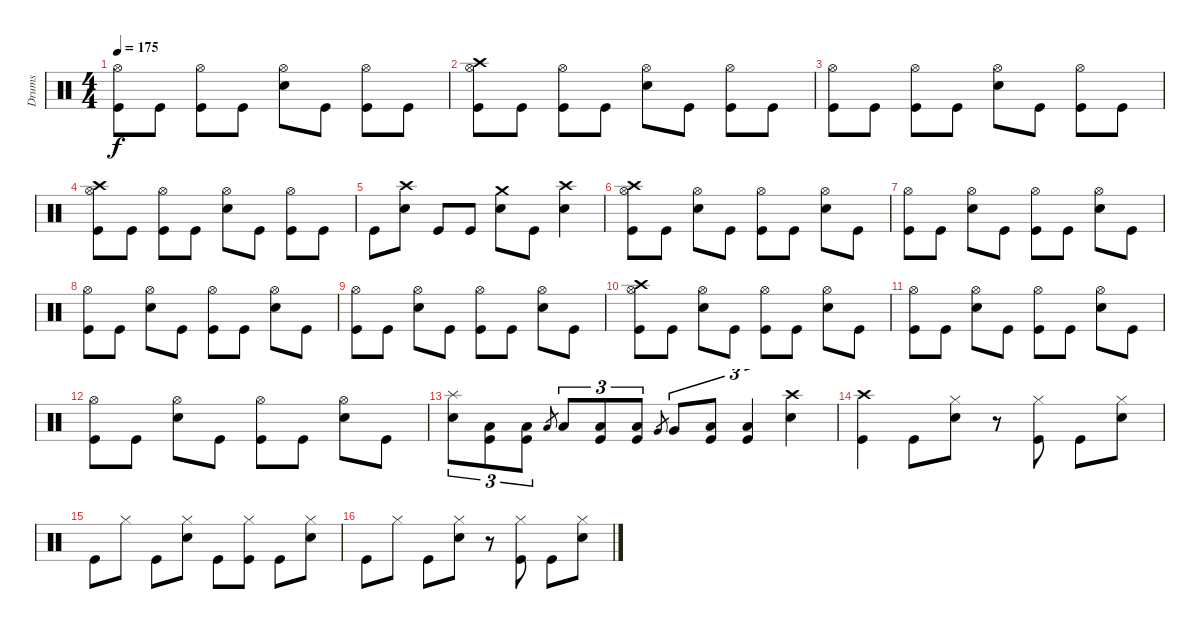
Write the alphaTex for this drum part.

\track ("Drums" "Drums") {instrument percussion}
\staff {score}
\articulation defaults
\ts (4 4)
\tempo 175
\clef neutral
\ks c
("Hi-Hat (open)" "Kick (hit)").8{dy f} "Kick (hit)".8 ("Hi-Hat (open)" "Kick (hit)").8 "Kick (hit)".8 ("Hi-Hat (open)" "Electric Snare (hit)").8 "Kick (hit)".8 ("Hi-Hat (open)" "Kick (hit)").8 "Kick (hit)".8 |
("Crash high (hit)" "Hi-Hat (open)" "Kick (hit)").8 "Kick (hit)".8 ("Hi-Hat (open)" "Kick (hit)").8 "Kick (hit)".8 ("Hi-Hat (open)" "Electric Snare (hit)").8 "Kick (hit)".8 ("Hi-Hat (open)" "Kick (hit)").8 "Kick (hit)".8 |
("Hi-Hat (open)" "Kick (hit)").8 "Kick (hit)".8 ("Hi-Hat (open)" "Kick (hit)").8 "Kick (hit)".8 ("Hi-Hat (open)" "Electric Snare (hit)").8 "Kick (hit)".8 ("Hi-Hat (open)" "Kick (hit)").8 "Kick (hit)".8 |
("Crash high (hit)" "Hi-Hat (open)" "Kick (hit)").8 "Kick (hit)".8 ("Hi-Hat (open)" "Kick (hit)").8 "Kick (hit)".8 ("Hi-Hat (open)" "Electric Snare (hit)").8 "Kick (hit)".8 ("Hi-Hat (open)" "Kick (hit)").8 "Kick (hit)".8 |
"Kick (hit)".8 ("Crash high (hit)" "Electric Snare (hit)").8 "Kick (hit)".8 "Kick (hit)".8 ("Crash medium (hit)" "Electric Snare (hit)").8 "Kick (hit)".8 ("Crash high (hit)" "Electric Snare (hit)").4 |
("Crash high (hit)" "Hi-Hat (open)" "Kick (hit)").8 "Kick (hit)".8 ("Hi-Hat (open)" "Electric Snare (hit)").8 "Kick (hit)".8 ("Hi-Hat (open)" "Kick (hit)").8 "Kick (hit)".8 ("Hi-Hat (open)" "Electric Snare (hit)").8 "Kick (hit)".8 |
("Hi-Hat (open)" "Kick (hit)").8 "Kick (hit)".8 ("Hi-Hat (open)" "Electric Snare (hit)").8 "Kick (hit)".8 ("Hi-Hat (open)" "Kick (hit)").8 "Kick (hit)".8 ("Hi-Hat (open)" "Electric Snare (hit)").8 "Kick (hit)".8 |
("Hi-Hat (open)" "Kick (hit)").8 "Kick (hit)".8 ("Hi-Hat (open)" "Electric Snare (hit)").8 "Kick (hit)".8 ("Hi-Hat (open)" "Kick (hit)").8 "Kick (hit)".8 ("Hi-Hat (open)" "Electric Snare (hit)").8 "Kick (hit)".8 |
("Hi-Hat (open)" "Kick (hit)").8 "Kick (hit)".8 ("Hi-Hat (open)" "Electric Snare (hit)").8 "Kick (hit)".8 ("Hi-Hat (open)" "Kick (hit)").8 "Kick (hit)".8 ("Hi-Hat (open)" "Electric Snare (hit)").8 "Kick (hit)".8 |
("Crash high (hit)" "Hi-Hat (open)" "Kick (hit)").8 "Kick (hit)".8 ("Hi-Hat (open)" "Electric Snare (hit)").8 "Kick (hit)".8 ("Hi-Hat (open)" "Kick (hit)").8 "Kick (hit)".8 ("Hi-Hat (open)" "Electric Snare (hit)").8 "Kick (hit)".8 |
("Hi-Hat (open)" "Kick (hit)").8 "Kick (hit)".8 ("Hi-Hat (open)" "Electric Snare (hit)").8 "Kick (hit)".8 ("Hi-Hat (open)" "Kick (hit)").8 "Kick (hit)".8 ("Hi-Hat (open)" "Electric Snare (hit)").8 "Kick (hit)".8 |
("Hi-Hat (open)" "Kick (hit)").8 "Kick (hit)".8 ("Hi-Hat (open)" "Electric Snare (hit)").8 "Kick (hit)".8 ("Hi-Hat (open)" "Kick (hit)").8 "Kick (hit)".8 ("Hi-Hat (open)" "Electric Snare (hit)").8 "Kick (hit)".8 |
("Splash (hit)" "Electric Snare (hit)").8{tu (3 2)} ("Low Floor Tom (hit)" "Kick (hit)").8{tu (3 2)} ("Low Floor Tom (hit)" "Kick (hit)").8{tu (3 2)} "Low Tom (hit)".8{gr} "Low Tom (hit)".8{tu (3 2)} ("Low Floor Tom (hit)" "Kick (hit)").8{tu (3 2)} ("Low Floor Tom (hit)" "Kick (hit)").8{tu (3 2)} "Very Low Tom (hit)".8{gr} "Very Low Tom (hit)".8{tu (3 2)} ("Low Floor Tom (hit)" "Kick (hit)").8{tu (3 2)} ("Low Floor Tom (hit)" "Kick (hit)").4{tu (3 2)} ("Crash high (hit)" "Electric Snare (hit)").4{tu (3 2)} |
("Crash high (hit)" "Kick (hit)").4 "Kick (hit)".8 ("Hi-Hat (closed)" "Electric Snare (hit)").8 r.8 ("Hi-Hat (closed)" "Kick (hit)").8 "Kick (hit)".8 ("Hi-Hat (closed)" "Electric Snare (hit)").8 |
"Kick (hit)".8 "Hi-Hat (closed)".8 "Kick (hit)".8 ("Hi-Hat (closed)" "Electric Snare (hit)").8 "Kick (hit)".8 ("Hi-Hat (closed)" "Kick (hit)").8 "Kick (hit)".8 ("Hi-Hat (closed)" "Electric Snare (hit)").8 |
"Kick (hit)".8 "Hi-Hat (closed)".8 "Kick (hit)".8 ("Hi-Hat (closed)" "Electric Snare (hit)").8 r.8 ("Hi-Hat (closed)" "Kick (hit)").8 "Kick (hit)".8 ("Hi-Hat (closed)" "Electric Snare (hit)").8
